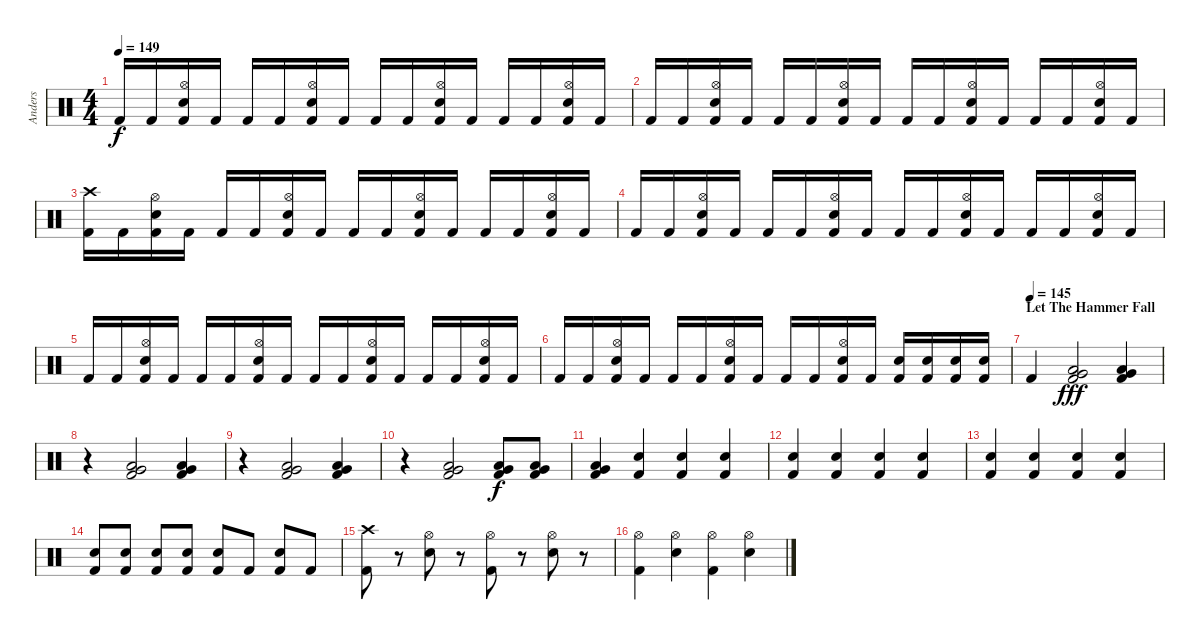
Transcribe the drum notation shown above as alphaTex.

\track ("Anders" "Anders") {instrument percussion}
\staff {score}
\articulation defaults
\ts (4 4)
\tempo 149
\clef neutral
\ks c "Kick (hit) 2".16{dy f} "Kick (hit) 2".16
("Hi-Hat (open)" "Electric Snare (hit)" "Kick (hit) 2").16 "Kick (hit) 2".16 "Kick (hit) 2".16 "Kick (hit) 2".16 ("Hi-Hat (open)" "Electric Snare (hit)" "Kick (hit) 2").16 "Kick (hit) 2".16 "Kick (hit) 2".16 "Kick (hit) 2".16 ("Hi-Hat (open)" "Electric Snare (hit)" "Kick (hit) 2").16 "Kick (hit) 2".16 "Kick (hit) 2".16 "Kick (hit) 2".16 ("Hi-Hat (open)" "Electric Snare (hit)" "Kick (hit) 2").16 "Kick (hit) 2".16 |
"Kick (hit) 2".16 "Kick (hit) 2".16 ("Hi-Hat (open)" "Electric Snare (hit)" "Kick (hit) 2").16 "Kick (hit) 2".16 "Kick (hit) 2".16 "Kick (hit) 2".16 ("Hi-Hat (open)" "Electric Snare (hit)" "Kick (hit) 2").16 "Kick (hit) 2".16 "Kick (hit) 2".16 "Kick (hit) 2".16 ("Hi-Hat (open)" "Electric Snare (hit)" "Kick (hit) 2").16 "Kick (hit) 2".16 "Kick (hit) 2".16 "Kick (hit) 2".16 ("Hi-Hat (open)" "Electric Snare (hit)" "Kick (hit) 2").16 "Kick (hit) 2".16 |
("Crash high (hit)" "Kick (hit) 2").16 "Kick (hit) 2".16 ("Hi-Hat (open)" "Electric Snare (hit)" "Kick (hit) 2").16 "Kick (hit) 2".16 "Kick (hit) 2".16 "Kick (hit) 2".16 ("Hi-Hat (open)" "Electric Snare (hit)" "Kick (hit) 2").16 "Kick (hit) 2".16 "Kick (hit) 2".16 "Kick (hit) 2".16 ("Hi-Hat (open)" "Electric Snare (hit)" "Kick (hit) 2").16 "Kick (hit) 2".16 "Kick (hit) 2".16 "Kick (hit) 2".16 ("Hi-Hat (open)" "Electric Snare (hit)" "Kick (hit) 2").16 "Kick (hit) 2".16 |
"Kick (hit) 2".16 "Kick (hit) 2".16 ("Hi-Hat (open)" "Electric Snare (hit)" "Kick (hit) 2").16 "Kick (hit) 2".16 "Kick (hit) 2".16 "Kick (hit) 2".16 ("Hi-Hat (open)" "Electric Snare (hit)" "Kick (hit) 2").16 "Kick (hit) 2".16 "Kick (hit) 2".16 "Kick (hit) 2".16 ("Hi-Hat (open)" "Electric Snare (hit)" "Kick (hit) 2").16 "Kick (hit) 2".16 "Kick (hit) 2".16 "Kick (hit) 2".16 ("Hi-Hat (open)" "Electric Snare (hit)" "Kick (hit) 2").16 "Kick (hit) 2".16 |
"Kick (hit) 2".16 "Kick (hit) 2".16 ("Hi-Hat (open)" "Electric Snare (hit)" "Kick (hit) 2").16 "Kick (hit) 2".16 "Kick (hit) 2".16 "Kick (hit) 2".16 ("Hi-Hat (open)" "Electric Snare (hit)" "Kick (hit) 2").16 "Kick (hit) 2".16 "Kick (hit) 2".16 "Kick (hit) 2".16 ("Hi-Hat (open)" "Electric Snare (hit)" "Kick (hit) 2").16 "Kick (hit) 2".16 "Kick (hit) 2".16 "Kick (hit) 2".16 ("Hi-Hat (open)" "Electric Snare (hit)" "Kick (hit) 2").16 "Kick (hit) 2".16 |
"Kick (hit) 2".16 "Kick (hit) 2".16 ("Hi-Hat (open)" "Electric Snare (hit)" "Kick (hit) 2").16 "Kick (hit) 2".16 "Kick (hit) 2".16 "Kick (hit) 2".16 ("Hi-Hat (open)" "Electric Snare (hit)" "Kick (hit) 2").16 "Kick (hit) 2".16 "Kick (hit) 2".16 "Kick (hit) 2".16 ("Hi-Hat (open)" "Electric Snare (hit)" "Kick (hit) 2").16 "Kick (hit) 2".16 ("Electric Snare (hit)" "Kick (hit) 2").16 ("Electric Snare (hit)" "Kick (hit) 2").16 ("Electric Snare (hit)" "Kick (hit) 2").16 ("Electric Snare (hit)" "Kick (hit) 2").16 |
\section ("" "Let The Hammer Fall")
\tempo (145)
"Kick (hit) 2".4 ("Low Tom (hit)" "Very Low Tom (hit)" "Kick (hit) 2").2{dy fff} ("Low Tom (hit)" "Very Low Tom (hit)" "Kick (hit) 2").4 |
r.4 ("Low Tom (hit)" "Very Low Tom (hit)" "Kick (hit) 2").2 ("Low Tom (hit)" "Very Low Tom (hit)" "Kick (hit) 2").4 |
r.4 ("Low Tom (hit)" "Very Low Tom (hit)" "Kick (hit) 2").2 ("Low Tom (hit)" "Very Low Tom (hit)" "Kick (hit) 2").4 |
r.4 ("Low Tom (hit)" "Very Low Tom (hit)" "Kick (hit) 2").2 ("Low Tom (hit)" "Very Low Tom (hit)" "Kick (hit) 2").8{dy f} ("Low Tom (hit)" "Very Low Tom (hit)" "Kick (hit) 2").8 |
("Low Tom (hit)" "Very Low Tom (hit)" "Kick (hit) 2").4 ("Electric Snare (hit)" "Kick (hit) 2").4 ("Electric Snare (hit)" "Kick (hit) 2").4 ("Electric Snare (hit)" "Kick (hit) 2").4 |
("Electric Snare (hit)" "Kick (hit) 2").4 ("Electric Snare (hit)" "Kick (hit) 2").4 ("Electric Snare (hit)" "Kick (hit) 2").4 ("Electric Snare (hit)" "Kick (hit) 2").4 |
("Electric Snare (hit)" "Kick (hit) 2").4 ("Electric Snare (hit)" "Kick (hit) 2").4 ("Electric Snare (hit)" "Kick (hit) 2").4 ("Electric Snare (hit)" "Kick (hit) 2").4 |
("Electric Snare (hit)" "Kick (hit) 2").8 ("Electric Snare (hit)" "Kick (hit) 2").8 ("Electric Snare (hit)" "Kick (hit) 2").8 ("Electric Snare (hit)" "Kick (hit) 2").8 ("Electric Snare (hit)" "Kick (hit) 2").8 "Kick (hit) 2".8 ("Electric Snare (hit)" "Kick (hit) 2").8 "Kick (hit) 2".8 |
("Crash high (hit)" "Kick (hit) 2").8 r.8 ("Hi-Hat (open)" "Electric Snare (hit)").8 r.8 ("Hi-Hat (open)" "Kick (hit) 2").8 r.8 ("Hi-Hat (open)" "Electric Snare (hit)").8 r.8 |
("Hi-Hat (open)" "Kick (hit) 2").4 ("Hi-Hat (open)" "Electric Snare (hit)").4 ("Hi-Hat (open)" "Kick (hit) 2").4 ("Hi-Hat (open)" "Electric Snare (hit)").4
